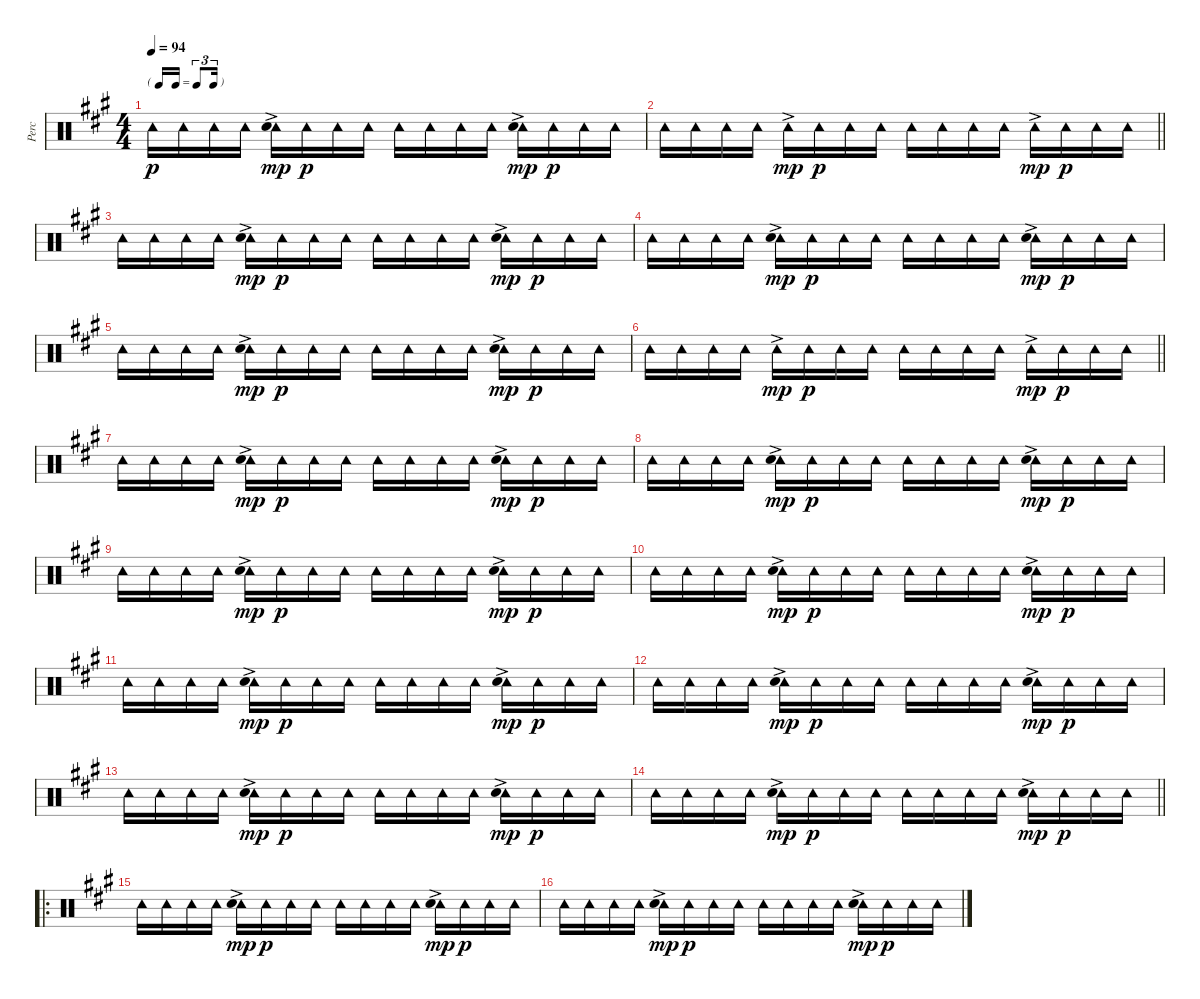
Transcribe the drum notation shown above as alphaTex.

\track ("Perc" "Perc") {instrument percussion}
\staff {score}
\articulation defaults
\ts (4 4)
\tf triplet16th
\tempo 94
\clef neutral
\ks a "Tambourine (hit)".16{dy p} "Tambourine (hit)".16 "Tambourine (hit)".16 "Tambourine (hit)".16
("Tambourine (hit)"{ac} "Hand Clap (hit)").16{dy mp} "Tambourine (hit)".16{dy p} "Tambourine (hit)".16 "Tambourine (hit)".16 "Tambourine (hit)".16 "Tambourine (hit)".16 "Tambourine (hit)".16 "Tambourine (hit)".16 ("Tambourine (hit)"{ac} "Hand Clap (hit)").16{dy mp} "Tambourine (hit)".16{dy p} "Tambourine (hit)".16 "Tambourine (hit)".16 |
\barLineRight lightlight "Tambourine (hit)".16 "Tambourine (hit)".16 "Tambourine (hit)".16 "Tambourine (hit)".16 "Tambourine (hit)"{ac}.16{dy mp} "Tambourine (hit)".16{dy p} "Tambourine (hit)".16 "Tambourine (hit)".16 "Tambourine (hit)".16 "Tambourine (hit)".16 "Tambourine (hit)".16 "Tambourine (hit)".16 "Tambourine (hit)"{ac}.16{dy mp} "Tambourine (hit)".16{dy p} "Tambourine (hit)".16 "Tambourine (hit)".16
|
"Tambourine (hit)".16 "Tambourine (hit)".16 "Tambourine (hit)".16 "Tambourine (hit)".16 ("Tambourine (hit)"{ac} "Hand Clap (hit)").16{dy mp} "Tambourine (hit)".16{dy p} "Tambourine (hit)".16 "Tambourine (hit)".16 "Tambourine (hit)".16 "Tambourine (hit)".16 "Tambourine (hit)".16 "Tambourine (hit)".16 ("Tambourine (hit)"{ac} "Hand Clap (hit)").16{dy mp} "Tambourine (hit)".16{dy p} "Tambourine (hit)".16 "Tambourine (hit)".16 |
"Tambourine (hit)".16 "Tambourine (hit)".16 "Tambourine (hit)".16 "Tambourine (hit)".16 ("Tambourine (hit)"{ac} "Hand Clap (hit)").16{dy mp} "Tambourine (hit)".16{dy p} "Tambourine (hit)".16 "Tambourine (hit)".16 "Tambourine (hit)".16 "Tambourine (hit)".16 "Tambourine (hit)".16 "Tambourine (hit)".16 ("Tambourine (hit)"{ac} "Hand Clap (hit)").16{dy mp} "Tambourine (hit)".16{dy p} "Tambourine (hit)".16 "Tambourine (hit)".16 |
"Tambourine (hit)".16 "Tambourine (hit)".16 "Tambourine (hit)".16 "Tambourine (hit)".16 ("Tambourine (hit)"{ac} "Hand Clap (hit)").16{dy mp} "Tambourine (hit)".16{dy p} "Tambourine (hit)".16 "Tambourine (hit)".16 "Tambourine (hit)".16 "Tambourine (hit)".16 "Tambourine (hit)".16 "Tambourine (hit)".16 ("Tambourine (hit)"{ac} "Hand Clap (hit)").16{dy mp} "Tambourine (hit)".16{dy p} "Tambourine (hit)".16 "Tambourine (hit)".16 |
\barLineRight lightlight "Tambourine (hit)".16 "Tambourine (hit)".16 "Tambourine (hit)".16 "Tambourine (hit)".16 "Tambourine (hit)"{ac}.16{dy mp} "Tambourine (hit)".16{dy p} "Tambourine (hit)".16 "Tambourine (hit)".16 "Tambourine (hit)".16 "Tambourine (hit)".16 "Tambourine (hit)".16 "Tambourine (hit)".16 "Tambourine (hit)"{ac}.16{dy mp} "Tambourine (hit)".16{dy p} "Tambourine (hit)".16 "Tambourine (hit)".16
|
"Tambourine (hit)".16 "Tambourine (hit)".16 "Tambourine (hit)".16 "Tambourine (hit)".16 ("Tambourine (hit)"{ac} "Hand Clap (hit)").16{dy mp} "Tambourine (hit)".16{dy p} "Tambourine (hit)".16 "Tambourine (hit)".16 "Tambourine (hit)".16 "Tambourine (hit)".16 "Tambourine (hit)".16 "Tambourine (hit)".16 ("Tambourine (hit)"{ac} "Hand Clap (hit)").16{dy mp} "Tambourine (hit)".16{dy p} "Tambourine (hit)".16 "Tambourine (hit)".16 |
"Tambourine (hit)".16 "Tambourine (hit)".16 "Tambourine (hit)".16 "Tambourine (hit)".16 ("Tambourine (hit)"{ac} "Hand Clap (hit)").16{dy mp} "Tambourine (hit)".16{dy p} "Tambourine (hit)".16 "Tambourine (hit)".16 "Tambourine (hit)".16 "Tambourine (hit)".16 "Tambourine (hit)".16 "Tambourine (hit)".16 ("Tambourine (hit)"{ac} "Hand Clap (hit)").16{dy mp} "Tambourine (hit)".16{dy p} "Tambourine (hit)".16 "Tambourine (hit)".16 |
"Tambourine (hit)".16 "Tambourine (hit)".16 "Tambourine (hit)".16 "Tambourine (hit)".16 ("Tambourine (hit)"{ac} "Hand Clap (hit)").16{dy mp} "Tambourine (hit)".16{dy p} "Tambourine (hit)".16 "Tambourine (hit)".16 "Tambourine (hit)".16 "Tambourine (hit)".16 "Tambourine (hit)".16 "Tambourine (hit)".16 ("Tambourine (hit)"{ac} "Hand Clap (hit)").16{dy mp} "Tambourine (hit)".16{dy p} "Tambourine (hit)".16 "Tambourine (hit)".16 |
"Tambourine (hit)".16 "Tambourine (hit)".16 "Tambourine (hit)".16 "Tambourine (hit)".16 ("Tambourine (hit)"{ac} "Hand Clap (hit)").16{dy mp} "Tambourine (hit)".16{dy p} "Tambourine (hit)".16 "Tambourine (hit)".16 "Tambourine (hit)".16 "Tambourine (hit)".16 "Tambourine (hit)".16 "Tambourine (hit)".16 ("Tambourine (hit)"{ac} "Hand Clap (hit)").16{dy mp} "Tambourine (hit)".16{dy p} "Tambourine (hit)".16 "Tambourine (hit)".16 |
"Tambourine (hit)".16 "Tambourine (hit)".16 "Tambourine (hit)".16 "Tambourine (hit)".16 ("Tambourine (hit)"{ac} "Hand Clap (hit)").16{dy mp} "Tambourine (hit)".16{dy p} "Tambourine (hit)".16 "Tambourine (hit)".16 "Tambourine (hit)".16 "Tambourine (hit)".16 "Tambourine (hit)".16 "Tambourine (hit)".16 ("Tambourine (hit)"{ac} "Hand Clap (hit)").16{dy mp} "Tambourine (hit)".16{dy p} "Tambourine (hit)".16 "Tambourine (hit)".16 |
"Tambourine (hit)".16 "Tambourine (hit)".16 "Tambourine (hit)".16 "Tambourine (hit)".16 ("Tambourine (hit)"{ac} "Hand Clap (hit)").16{dy mp} "Tambourine (hit)".16{dy p} "Tambourine (hit)".16 "Tambourine (hit)".16 "Tambourine (hit)".16 "Tambourine (hit)".16 "Tambourine (hit)".16 "Tambourine (hit)".16 ("Tambourine (hit)"{ac} "Hand Clap (hit)").16{dy mp} "Tambourine (hit)".16{dy p} "Tambourine (hit)".16 "Tambourine (hit)".16 |
"Tambourine (hit)".16 "Tambourine (hit)".16 "Tambourine (hit)".16 "Tambourine (hit)".16 ("Tambourine (hit)"{ac} "Hand Clap (hit)").16{dy mp} "Tambourine (hit)".16{dy p} "Tambourine (hit)".16 "Tambourine (hit)".16 "Tambourine (hit)".16 "Tambourine (hit)".16 "Tambourine (hit)".16 "Tambourine (hit)".16 ("Tambourine (hit)"{ac} "Hand Clap (hit)").16{dy mp} "Tambourine (hit)".16{dy p} "Tambourine (hit)".16 "Tambourine (hit)".16 |
\barLineRight lightlight "Tambourine (hit)".16 "Tambourine (hit)".16 "Tambourine (hit)".16 "Tambourine (hit)".16
("Tambourine (hit)"{ac} "Hand Clap (hit)").16{dy mp} "Tambourine (hit)".16{dy p} "Tambourine (hit)".16 "Tambourine (hit)".16 "Tambourine (hit)".16 "Tambourine (hit)".16 "Tambourine (hit)".16 "Tambourine (hit)".16 ("Tambourine (hit)"{ac} "Hand Clap (hit)").16{dy mp} "Tambourine (hit)".16{dy p} "Tambourine (hit)".16 "Tambourine (hit)".16 |
\ro "Tambourine (hit)".16 "Tambourine (hit)".16 "Tambourine (hit)".16 "Tambourine (hit)".16
("Tambourine (hit)"{ac} "Hand Clap (hit)").16{dy mp} "Tambourine (hit)".16{dy p} "Tambourine (hit)".16 "Tambourine (hit)".16 "Tambourine (hit)".16 "Tambourine (hit)".16 "Tambourine (hit)".16 "Tambourine (hit)".16 ("Tambourine (hit)"{ac} "Hand Clap (hit)").16{dy mp} "Tambourine (hit)".16{dy p} "Tambourine (hit)".16 "Tambourine (hit)".16 |
"Tambourine (hit)".16 "Tambourine (hit)".16 "Tambourine (hit)".16 "Tambourine (hit)".16 ("Tambourine (hit)"{ac} "Hand Clap (hit)").16{dy mp} "Tambourine (hit)".16{dy p} "Tambourine (hit)".16 "Tambourine (hit)".16 "Tambourine (hit)".16 "Tambourine (hit)".16 "Tambourine (hit)".16 "Tambourine (hit)".16 ("Tambourine (hit)"{ac} "Hand Clap (hit)").16{dy mp} "Tambourine (hit)".16{dy p} "Tambourine (hit)".16 "Tambourine (hit)".16
